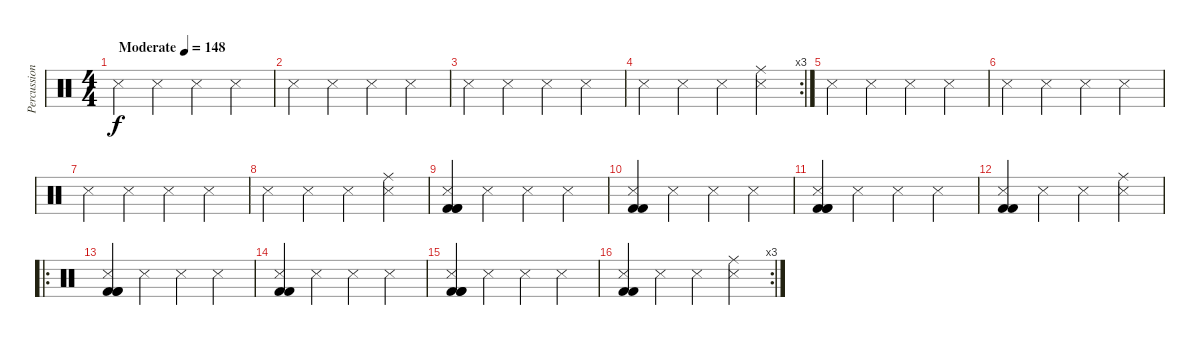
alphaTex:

\track ("Percussion" "Percussion") {instrument percussion}
\staff {score}
\articulation defaults
\ts (4 4)
\tempo (148 "Moderate")
\clef neutral
\ks c "Snare (side stick) 3".4{dy f} "Snare (side stick) 3".4 "Snare (side stick) 3".4 "Snare (side stick) 3".4
|
"Snare (side stick) 3".4 "Snare (side stick) 3".4 "Snare (side stick) 3".4 "Snare (side stick) 3".4 |
"Snare (side stick) 3".4 "Snare (side stick) 3".4 "Snare (side stick) 3".4 "Snare (side stick) 3".4 |
\rc 3 "Snare (side stick) 3".4 "Snare (side stick) 3".4 "Snare (side stick) 3".4
("Snare (side stick) 3" "Ride (middle)").4 |
"Snare (side stick) 3".4 "Snare (side stick) 3".4 "Snare (side stick) 3".4 "Snare (side stick) 3".4 |
"Snare (side stick) 3".4 "Snare (side stick) 3".4 "Snare (side stick) 3".4 "Snare (side stick) 3".4 |
"Snare (side stick) 3".4 "Snare (side stick) 3".4 "Snare (side stick) 3".4 "Snare (side stick) 3".4 |
"Snare (side stick) 3".4 "Snare (side stick) 3".4 "Snare (side stick) 3".4 ("Snare (side stick) 3" "Ride (middle)").4 |
("Snare (side stick) 3" "Kick (hit) 2" "Kick (hit) 2" "Kick (hit) 2").4 "Snare (side stick) 3".4 "Snare (side stick) 3".4 "Snare (side stick) 3".4 |
("Snare (side stick) 3" "Kick (hit) 2" "Kick (hit) 2").4 "Snare (side stick) 3".4 "Snare (side stick) 3".4 "Snare (side stick) 3".4 |
("Snare (side stick) 3" "Kick (hit) 2" "Kick (hit) 2" "Kick (hit) 2").4 "Snare (side stick) 3".4 "Snare (side stick) 3".4 "Snare (side stick) 3".4 |
("Snare (side stick) 3" "Kick (hit) 2" "Kick (hit) 2").4 "Snare (side stick) 3".4 "Snare (side stick) 3".4 ("Snare (side stick) 3" "Ride (middle)").4 |
\ro
("Snare (side stick) 3" "Kick (hit) 2" "Kick (hit) 2" "Kick (hit) 2").4 "Snare (side stick) 3".4 "Snare (side stick) 3".4 "Snare (side stick) 3".4 |
("Snare (side stick) 3" "Kick (hit) 2" "Kick (hit) 2").4 "Snare (side stick) 3".4 "Snare (side stick) 3".4 "Snare (side stick) 3".4 |
("Snare (side stick) 3" "Kick (hit) 2" "Kick (hit) 2" "Kick (hit) 2").4 "Snare (side stick) 3".4 "Snare (side stick) 3".4 "Snare (side stick) 3".4 |
\rc 3
("Snare (side stick) 3" "Kick (hit) 2" "Kick (hit) 2").4 "Snare (side stick) 3".4 "Snare (side stick) 3".4 ("Snare (side stick) 3" "Ride (middle)").4
